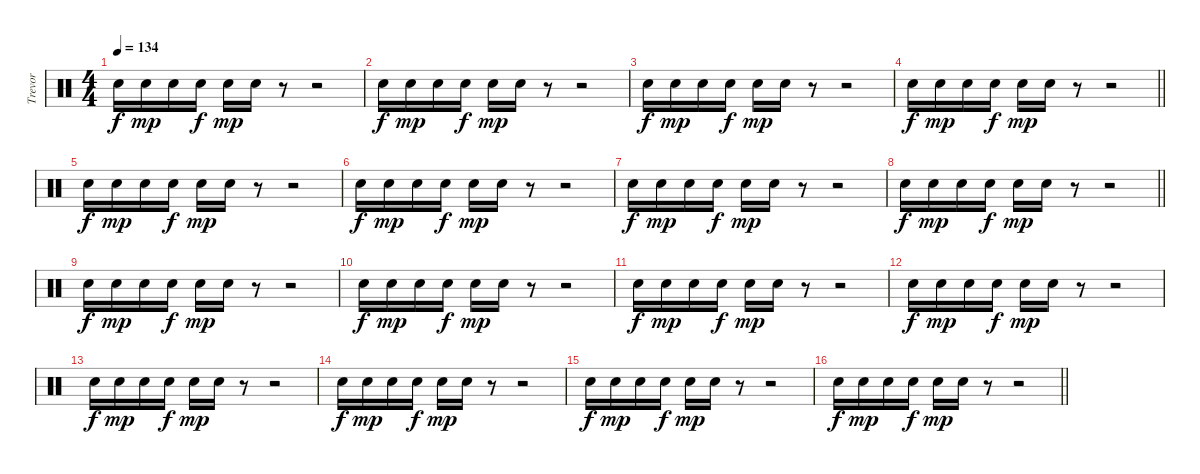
\track ("Trevor" "Trevor") {instrument percussion}
\staff {score}
\articulation defaults
\ts (4 4)
\tempo 134
\clef neutral
\ks c "Snare (hit) 2".16{dy f} "Snare (hit) 2".16{dy mp} "Snare (hit) 2".16 "Snare (hit) 2".16{dy f} "Snare (hit) 2".16{dy mp} "Snare (hit) 2".16
r.8 r.2 |
"Snare (hit) 2".16{dy f} "Snare (hit) 2".16{dy mp} "Snare (hit) 2".16 "Snare (hit) 2".16{dy f} "Snare (hit) 2".16{dy mp} "Snare (hit) 2".16 r.8 r.2 |
"Snare (hit) 2".16{dy f} "Snare (hit) 2".16{dy mp} "Snare (hit) 2".16 "Snare (hit) 2".16{dy f} "Snare (hit) 2".16{dy mp} "Snare (hit) 2".16 r.8 r.2 |
\barLineRight lightlight "Snare (hit) 2".16{dy f} "Snare (hit) 2".16{dy mp} "Snare (hit) 2".16 "Snare (hit) 2".16{dy f} "Snare (hit) 2".16{dy mp} "Snare (hit) 2".16
r.8 r.2 |
\section ("" "")
"Snare (hit) 2".16{dy f} "Snare (hit) 2".16{dy mp} "Snare (hit) 2".16 "Snare (hit) 2".16{dy f} "Snare (hit) 2".16{dy mp} "Snare (hit) 2".16 r.8 r.2 |
"Snare (hit) 2".16{dy f} "Snare (hit) 2".16{dy mp} "Snare (hit) 2".16 "Snare (hit) 2".16{dy f} "Snare (hit) 2".16{dy mp} "Snare (hit) 2".16 r.8 r.2 |
"Snare (hit) 2".16{dy f} "Snare (hit) 2".16{dy mp} "Snare (hit) 2".16 "Snare (hit) 2".16{dy f} "Snare (hit) 2".16{dy mp} "Snare (hit) 2".16 r.8 r.2 |
\barLineRight lightlight "Snare (hit) 2".16{dy f} "Snare (hit) 2".16{dy mp} "Snare (hit) 2".16 "Snare (hit) 2".16{dy f} "Snare (hit) 2".16{dy mp} "Snare (hit) 2".16
r.8 r.2 |
\section ("" "")
"Snare (hit) 2".16{dy f} "Snare (hit) 2".16{dy mp} "Snare (hit) 2".16 "Snare (hit) 2".16{dy f} "Snare (hit) 2".16{dy mp} "Snare (hit) 2".16 r.8 r.2 |
"Snare (hit) 2".16{dy f} "Snare (hit) 2".16{dy mp} "Snare (hit) 2".16 "Snare (hit) 2".16{dy f} "Snare (hit) 2".16{dy mp} "Snare (hit) 2".16 r.8 r.2 |
"Snare (hit) 2".16{dy f} "Snare (hit) 2".16{dy mp} "Snare (hit) 2".16 "Snare (hit) 2".16{dy f} "Snare (hit) 2".16{dy mp} "Snare (hit) 2".16 r.8 r.2 |
"Snare (hit) 2".16{dy f} "Snare (hit) 2".16{dy mp} "Snare (hit) 2".16 "Snare (hit) 2".16{dy f} "Snare (hit) 2".16{dy mp} "Snare (hit) 2".16 r.8 r.2 |
"Snare (hit) 2".16{dy f} "Snare (hit) 2".16{dy mp} "Snare (hit) 2".16 "Snare (hit) 2".16{dy f} "Snare (hit) 2".16{dy mp} "Snare (hit) 2".16 r.8 r.2 |
"Snare (hit) 2".16{dy f} "Snare (hit) 2".16{dy mp} "Snare (hit) 2".16 "Snare (hit) 2".16{dy f} "Snare (hit) 2".16{dy mp} "Snare (hit) 2".16 r.8 r.2 |
"Snare (hit) 2".16{dy f} "Snare (hit) 2".16{dy mp} "Snare (hit) 2".16 "Snare (hit) 2".16{dy f} "Snare (hit) 2".16{dy mp} "Snare (hit) 2".16 r.8 r.2 |
\barLineRight lightlight "Snare (hit) 2".16{dy f} "Snare (hit) 2".16{dy mp} "Snare (hit) 2".16 "Snare (hit) 2".16{dy f} "Snare (hit) 2".16{dy mp} "Snare (hit) 2".16
r.8 r.2
